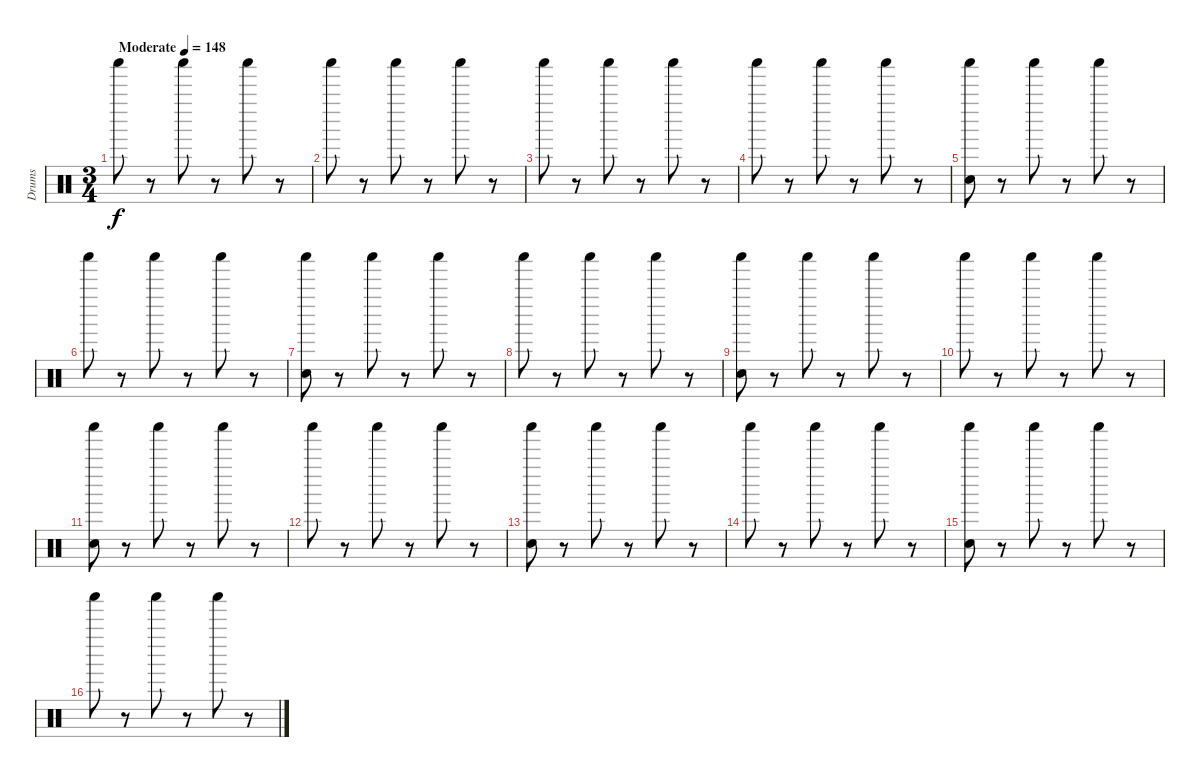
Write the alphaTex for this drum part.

\track ("Drums" "Drums") {instrument percussion}
\staff {score}
\articulation defaults
\ts (3 4)
\tempo (148 "Moderate")
\clef neutral
\ks c "Shaker (hit)".8{dy f}
r.8 "Shaker (hit)".8 r.8 "Shaker (hit)".8 r.8 |
"Shaker (hit)".8 r.8 "Shaker (hit)".8 r.8 "Shaker (hit)".8 r.8 |
"Shaker (hit)".8 r.8 "Shaker (hit)".8 r.8 "Shaker (hit)".8 r.8 |
"Shaker (hit)".8 r.8 "Shaker (hit)".8 r.8 "Shaker (hit)".8 r.8 |
("Shaker (hit)" "Hand Clap (hit)").8 r.8 "Shaker (hit)".8 r.8 "Shaker (hit)".8 r.8 |
"Shaker (hit)".8 r.8 "Shaker (hit)".8 r.8 "Shaker (hit)".8 r.8 |
("Shaker (hit)" "Hand Clap (hit)").8 r.8 "Shaker (hit)".8 r.8 "Shaker (hit)".8 r.8 |
"Shaker (hit)".8 r.8 "Shaker (hit)".8 r.8 "Shaker (hit)".8 r.8 |
("Shaker (hit)" "Hand Clap (hit)").8 r.8 "Shaker (hit)".8 r.8 "Shaker (hit)".8 r.8 |
"Shaker (hit)".8 r.8 "Shaker (hit)".8 r.8 "Shaker (hit)".8 r.8 |
("Shaker (hit)" "Hand Clap (hit)").8 r.8 "Shaker (hit)".8 r.8 "Shaker (hit)".8 r.8 |
"Shaker (hit)".8 r.8 "Shaker (hit)".8 r.8 "Shaker (hit)".8 r.8 |
("Shaker (hit)" "Hand Clap (hit)").8 r.8 "Shaker (hit)".8 r.8 "Shaker (hit)".8 r.8 |
"Shaker (hit)".8 r.8 "Shaker (hit)".8 r.8 "Shaker (hit)".8 r.8 |
("Shaker (hit)" "Hand Clap (hit)").8 r.8 "Shaker (hit)".8 r.8 "Shaker (hit)".8 r.8 |
"Shaker (hit)".8 r.8 "Shaker (hit)".8 r.8 "Shaker (hit)".8 r.8
